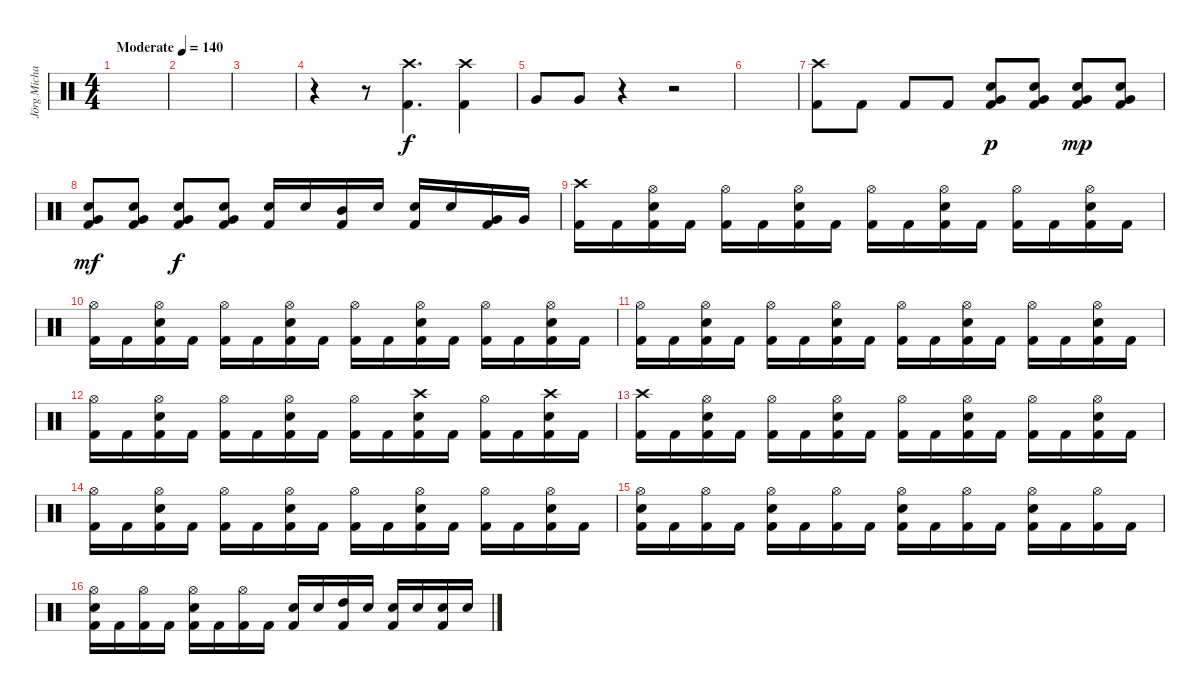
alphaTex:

\track ("Jörg Michael" "Jörg Micha") {instrument percussion}
\staff {score}
\articulation defaults
\ts (4 4)
\tempo (140 "Moderate")
\clef neutral
\ks c
|
|
|
r.4 r.8 ("Crash high (hit)" "Kick (hit) 2").4{d} ("Crash high (hit)" "Kick (hit) 2").4 |
"Very Low Tom (hit)".8 "Very Low Tom (hit)".8 r.4 r.2 |
|
("Crash high (hit)" "Kick (hit) 2").8 "Kick (hit) 2".8 "Kick (hit) 2".8 "Kick (hit) 2".8 ("Very Low Tom (hit)" "Kick (hit) 2" "Electric Snare (hit)").8{dy p} ("Very Low Tom (hit)" "Kick (hit) 2" "Electric Snare (hit)").8 ("Very Low Tom (hit)" "Kick (hit) 2" "Electric Snare (hit)").8{dy mp} ("Very Low Tom (hit)" "Kick (hit) 2" "Electric Snare (hit)").8 |
("Very Low Tom (hit)" "Kick (hit) 2" "Electric Snare (hit)").8{dy mf} ("Very Low Tom (hit)" "Kick (hit) 2" "Electric Snare (hit)").8 ("Very Low Tom (hit)" "Kick (hit) 2" "Electric Snare (hit)").8{dy f} ("Very Low Tom (hit)" "Kick (hit) 2" "Electric Snare (hit)").8 ("Electric Snare (hit)" "Kick (hit) 2").16 "Electric Snare (hit)".16 ("Mid Tom (hit)" "Kick (hit) 2").16 "Electric Snare (hit)".16 ("Electric Snare (hit)" "Kick (hit) 2").16 "Electric Snare (hit)".16 ("Very Low Tom (hit)" "Kick (hit) 2").16 "Very Low Tom (hit)".16 |
("Crash high (hit)" "Kick (hit) 2").16 "Kick (hit) 2".16 ("Hi-Hat (open)" "Kick (hit) 2" "Electric Snare (hit)").16 "Kick (hit) 2".16 ("Hi-Hat (open)" "Kick (hit) 2").16 "Kick (hit) 2".16 ("Hi-Hat (open)" "Kick (hit) 2" "Electric Snare (hit)").16 "Kick (hit) 2".16 ("Hi-Hat (open)" "Kick (hit) 2").16 "Kick (hit) 2".16 ("Hi-Hat (open)" "Kick (hit) 2" "Electric Snare (hit)").16 "Kick (hit) 2".16 ("Hi-Hat (open)" "Kick (hit) 2").16 "Kick (hit) 2".16 ("Hi-Hat (open)" "Kick (hit) 2" "Electric Snare (hit)").16 "Kick (hit) 2".16 |
("Hi-Hat (open)" "Kick (hit) 2").16 "Kick (hit) 2".16 ("Hi-Hat (open)" "Kick (hit) 2" "Electric Snare (hit)").16 "Kick (hit) 2".16 ("Hi-Hat (open)" "Kick (hit) 2").16 "Kick (hit) 2".16 ("Hi-Hat (open)" "Kick (hit) 2" "Electric Snare (hit)").16 "Kick (hit) 2".16 ("Hi-Hat (open)" "Kick (hit) 2").16 "Kick (hit) 2".16 ("Hi-Hat (open)" "Kick (hit) 2" "Electric Snare (hit)").16 "Kick (hit) 2".16 ("Hi-Hat (open)" "Kick (hit) 2").16 "Kick (hit) 2".16 ("Hi-Hat (open)" "Kick (hit) 2" "Electric Snare (hit)").16 "Kick (hit) 2".16 |
("Hi-Hat (open)" "Kick (hit) 2").16 "Kick (hit) 2".16 ("Hi-Hat (open)" "Kick (hit) 2" "Electric Snare (hit)").16 "Kick (hit) 2".16 ("Hi-Hat (open)" "Kick (hit) 2").16 "Kick (hit) 2".16 ("Hi-Hat (open)" "Kick (hit) 2" "Electric Snare (hit)").16 "Kick (hit) 2".16 ("Hi-Hat (open)" "Kick (hit) 2").16 "Kick (hit) 2".16 ("Hi-Hat (open)" "Kick (hit) 2" "Electric Snare (hit)").16 "Kick (hit) 2".16 ("Hi-Hat (open)" "Kick (hit) 2").16 "Kick (hit) 2".16 ("Hi-Hat (open)" "Kick (hit) 2" "Electric Snare (hit)").16 "Kick (hit) 2".16 |
("Hi-Hat (open)" "Kick (hit) 2").16 "Kick (hit) 2".16 ("Hi-Hat (open)" "Kick (hit) 2" "Electric Snare (hit)").16 "Kick (hit) 2".16 ("Hi-Hat (open)" "Kick (hit) 2").16 "Kick (hit) 2".16 ("Hi-Hat (open)" "Kick (hit) 2" "Electric Snare (hit)").16 "Kick (hit) 2".16 ("Hi-Hat (open)" "Kick (hit) 2").16 "Kick (hit) 2".16 ("Crash high (hit)" "Kick (hit) 2" "Electric Snare (hit)").16 "Kick (hit) 2".16 ("Hi-Hat (open)" "Kick (hit) 2").16 "Kick (hit) 2".16 ("Crash high (hit)" "Kick (hit) 2" "Electric Snare (hit)").16 "Kick (hit) 2".16 |
("Crash high (hit)" "Kick (hit) 2").16 "Kick (hit) 2".16 ("Hi-Hat (open)" "Kick (hit) 2" "Electric Snare (hit)").16 "Kick (hit) 2".16 ("Hi-Hat (open)" "Kick (hit) 2").16 "Kick (hit) 2".16 ("Hi-Hat (open)" "Kick (hit) 2" "Electric Snare (hit)").16 "Kick (hit) 2".16 ("Hi-Hat (open)" "Kick (hit) 2").16 "Kick (hit) 2".16 ("Hi-Hat (open)" "Kick (hit) 2" "Electric Snare (hit)").16 "Kick (hit) 2".16 ("Hi-Hat (open)" "Kick (hit) 2").16 "Kick (hit) 2".16 ("Hi-Hat (open)" "Kick (hit) 2" "Electric Snare (hit)").16 "Kick (hit) 2".16 |
("Hi-Hat (open)" "Kick (hit) 2").16 "Kick (hit) 2".16 ("Hi-Hat (open)" "Kick (hit) 2" "Electric Snare (hit)").16 "Kick (hit) 2".16 ("Hi-Hat (open)" "Kick (hit) 2").16 "Kick (hit) 2".16 ("Hi-Hat (open)" "Kick (hit) 2" "Electric Snare (hit)").16 "Kick (hit) 2".16 ("Hi-Hat (open)" "Kick (hit) 2").16 "Kick (hit) 2".16 ("Hi-Hat (open)" "Kick (hit) 2" "Electric Snare (hit)").16 "Kick (hit) 2".16 ("Hi-Hat (open)" "Kick (hit) 2").16 "Kick (hit) 2".16 ("Hi-Hat (open)" "Kick (hit) 2" "Electric Snare (hit)").16 "Kick (hit) 2".16 |
("Hi-Hat (open)" "Kick (hit) 2" "Electric Snare (hit)").16 "Kick (hit) 2".16 ("Hi-Hat (open)" "Kick (hit) 2").16 "Kick (hit) 2".16 ("Hi-Hat (open)" "Kick (hit) 2" "Electric Snare (hit)").16 "Kick (hit) 2".16 ("Hi-Hat (open)" "Kick (hit) 2").16 "Kick (hit) 2".16 ("Hi-Hat (open)" "Kick (hit) 2" "Electric Snare (hit)").16 "Kick (hit) 2".16 ("Hi-Hat (open)" "Kick (hit) 2").16 "Kick (hit) 2".16 ("Hi-Hat (open)" "Kick (hit) 2" "Electric Snare (hit)").16 "Kick (hit) 2".16 ("Hi-Hat (open)" "Kick (hit) 2").16 "Kick (hit) 2".16 |
("Hi-Hat (open)" "Kick (hit) 2" "Electric Snare (hit)").16 "Kick (hit) 2".16 ("Hi-Hat (open)" "Kick (hit) 2").16 "Kick (hit) 2".16 ("Hi-Hat (open)" "Kick (hit) 2" "Electric Snare (hit)").16 "Kick (hit) 2".16 ("Hi-Hat (open)" "Kick (hit) 2").16 "Kick (hit) 2".16 ("Electric Snare (hit)" "Kick (hit) 2").16 "Electric Snare (hit)".16 ("High Tom (hit)" "Kick (hit) 2").16 "Electric Snare (hit)".16 ("Electric Snare (hit)" "Kick (hit) 2").16 "Electric Snare (hit)".16 ("Electric Snare (hit)" "Kick (hit) 2").16 "Electric Snare (hit)".16
